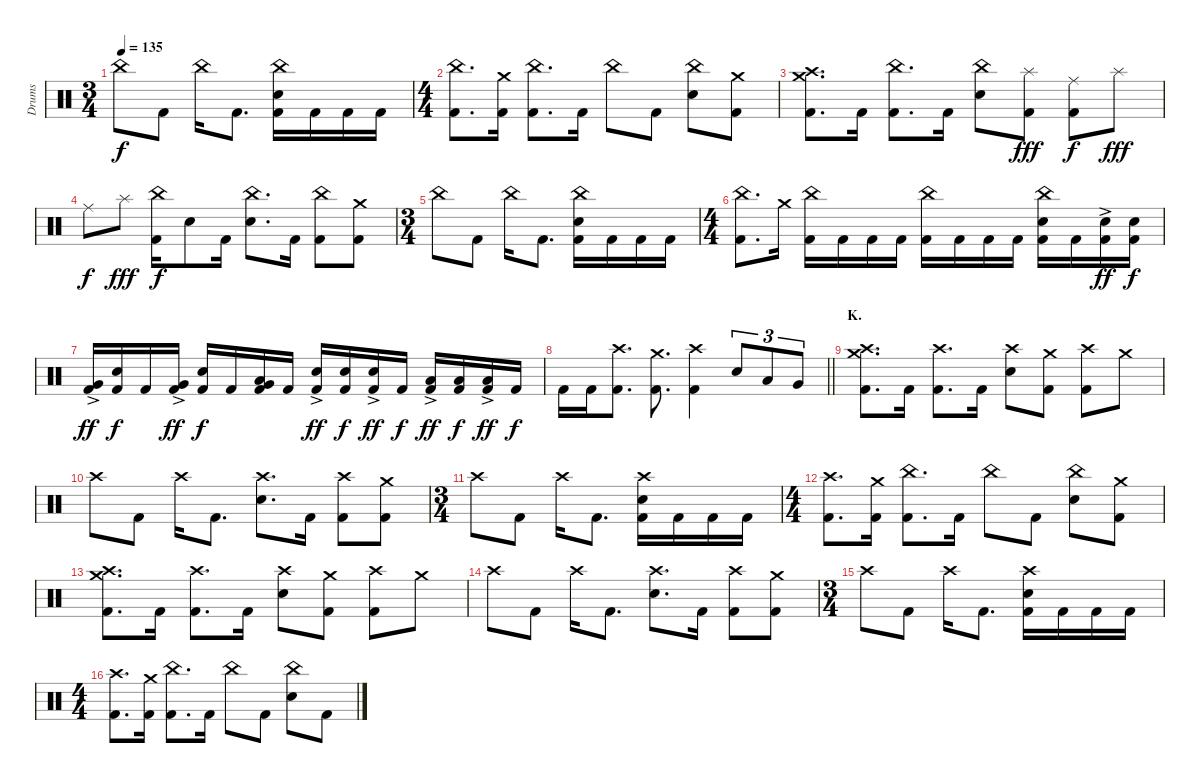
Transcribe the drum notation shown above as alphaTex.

\track ("Drums" "Drums") {instrument percussion}
\staff {score}
\articulation defaults
\ts (3 4)
\tempo 135
\clef neutral
\ks c "China (hit)".8{dy f} "Kick (hit) 2".8 "China (hit)".16 "Kick (hit) 2".8{d}
("China (hit)" "Electric Snare (hit)" "Kick (hit) 2").16 "Kick (hit) 2".16 "Kick (hit) 2".16 "Kick (hit) 2".16 |
\ts (4 4)
("China (hit)" "Kick (hit) 2").8{d} ("Crash medium (hit)" "Kick (hit) 2").16 ("China (hit)" "Kick (hit) 2").8{d} "Kick (hit) 2".16 "China (hit)".8 "Kick (hit) 2".8 ("China (hit)" "Electric Snare (hit)").8 ("Crash medium (hit)" "Kick (hit) 2").8 |
("Crash medium (hit)" "Crash high (hit)" "Kick (hit) 2").8{d} "Kick (hit) 2".16 ("China (hit)" "Kick (hit) 2").8{d} "Kick (hit) 2".16 ("China (hit)" "Electric Snare (hit)").8 ("Splash (hit)" "Kick (hit) 2").8{dy fff} ("Ride (middle)" "Kick (hit) 2").8{dy f} "Splash (hit)".8{dy fff} |
"Ride (middle)".8{dy f} "Splash (hit)".8{dy fff} ("China (hit)" "Kick (hit) 2").16{dy f} "Electric Snare (hit)".8 "Kick (hit) 2".16 ("China (hit)" "Electric Snare (hit)").8{d} "Kick (hit) 2".16 ("China (hit)" "Kick (hit) 2").8 ("Crash medium (hit)" "Kick (hit) 2").8 |
\ts (3 4)
"China (hit)".8 "Kick (hit) 2".8 "China (hit)".16 "Kick (hit) 2".8{d} ("China (hit)" "Electric Snare (hit)" "Kick (hit) 2").16 "Kick (hit) 2".16 "Kick (hit) 2".16 "Kick (hit) 2".16 |
\ts (4 4)
("China (hit)" "Kick (hit) 2").8{d} "Crash medium (hit)".16 ("China (hit)" "Kick (hit) 2").16 "Kick (hit) 2".16 "Kick (hit) 2".16 "Kick (hit) 2".16 ("China (hit)" "Kick (hit) 2").16 "Kick (hit) 2".16 "Kick (hit) 2".16 "Kick (hit) 2".16 ("China (hit)" "Electric Snare (hit)" "Kick (hit) 2").16 "Kick (hit) 2".16 ("Electric Snare (hit)"{ac} "Kick (hit) 2").16{dy ff} ("Electric Snare (hit)" "Kick (hit) 2").16{dy f} |
("Very Low Tom (hit)"{ac} "Kick (hit) 2").16{dy ff} ("Electric Snare (hit)" "Kick (hit) 2").16{dy f} "Kick (hit) 2".16 ("Very Low Tom (hit)"{ac} "Kick (hit) 2").16{dy ff} ("Electric Snare (hit)" "Kick (hit) 2").16{dy f} "Kick (hit) 2".16 ("Very Low Tom (hit)" "Low Floor Tom (hit)" "Kick (hit) 2").16 "Kick (hit) 2".16 ("Electric Snare (hit)"{ac} "Kick (hit) 2").16{dy ff} ("Electric Snare (hit)" "Kick (hit) 2").16{dy f} ("Electric Snare (hit)"{ac} "Kick (hit) 2").16{dy ff} "Kick (hit) 2".16{dy f} ("Low Floor Tom (hit)"{ac} "Kick (hit) 2").16{dy ff} ("Low Floor Tom (hit)" "Kick (hit) 2").16{dy f} ("Low Floor Tom (hit)"{ac} "Kick (hit) 2").16{dy ff} "Kick (hit) 2".16{dy f} |
\barLineRight lightlight "Kick (hit) 2".16 "Kick (hit) 2".16
("Crash high (hit)" "Kick (hit) 2").8{d} ("Crash medium (hit)" "Kick (hit) 2").8{d} ("Crash high (hit)" "Kick (hit) 2").4 "Electric Snare (hit)".8{tu (3 2)} "Low Tom (hit)".8{tu (3 2)} "Very Low Tom (hit)".8{tu (3 2)} |
\section ("" "K.")
("Crash medium (hit)" "Crash high (hit)" "Kick (hit) 2").8{d} "Kick (hit) 2".16 ("Crash high (hit)" "Kick (hit) 2").8{d} "Kick (hit) 2".16 ("Crash high (hit)" "Electric Snare (hit)").8 ("Crash medium (hit)" "Kick (hit) 2").8 ("Crash high (hit)" "Kick (hit) 2").8 "Crash medium (hit)".8 |
"Crash high (hit)".8 "Kick (hit) 2".8 "Crash high (hit)".16 "Kick (hit) 2".8{d} ("Crash high (hit)" "Electric Snare (hit)").8{d} "Kick (hit) 2".16 ("Crash high (hit)" "Kick (hit) 2").8 ("Crash medium (hit)" "Kick (hit) 2").8 |
\ts (3 4)
"Crash high (hit)".8 "Kick (hit) 2".8 "Crash high (hit)".16 "Kick (hit) 2".8{d} ("Crash high (hit)" "Electric Snare (hit)" "Kick (hit) 2").16 "Kick (hit) 2".16 "Kick (hit) 2".16 "Kick (hit) 2".16 |
\ts (4 4)
("Crash high (hit)" "Kick (hit) 2").8{d} ("Crash medium (hit)" "Kick (hit) 2").16 ("China (hit)" "Kick (hit) 2").8{d} "Kick (hit) 2".16 "China (hit)".8 "Kick (hit) 2".8 ("China (hit)" "Electric Snare (hit)").8 ("Crash medium (hit)" "Kick (hit) 2").8 |
("Crash medium (hit)" "Crash high (hit)" "Kick (hit) 2").8{d} "Kick (hit) 2".16 ("Crash high (hit)" "Kick (hit) 2").8{d} "Kick (hit) 2".16 ("Crash high (hit)" "Electric Snare (hit)").8 ("Crash medium (hit)" "Kick (hit) 2").8 ("Crash high (hit)" "Kick (hit) 2").8 "Crash medium (hit)".8 |
"Crash high (hit)".8 "Kick (hit) 2".8 "Crash high (hit)".16 "Kick (hit) 2".8{d} ("Crash high (hit)" "Electric Snare (hit)").8{d} "Kick (hit) 2".16 ("Crash high (hit)" "Kick (hit) 2").8 ("Crash medium (hit)" "Kick (hit) 2").8 |
\ts (3 4)
"Crash high (hit)".8 "Kick (hit) 2".8 "Crash high (hit)".16 "Kick (hit) 2".8{d} ("Crash high (hit)" "Electric Snare (hit)" "Kick (hit) 2").16 "Kick (hit) 2".16 "Kick (hit) 2".16 "Kick (hit) 2".16 |
\ts (4 4)
("Crash high (hit)" "Kick (hit) 2").8{d} ("Crash medium (hit)" "Kick (hit) 2").16 ("China (hit)" "Kick (hit) 2").8{d} "Kick (hit) 2".16 "China (hit)".8 "Kick (hit) 2".8 ("China (hit)" "Electric Snare (hit)").8 "Kick (hit) 2".8
